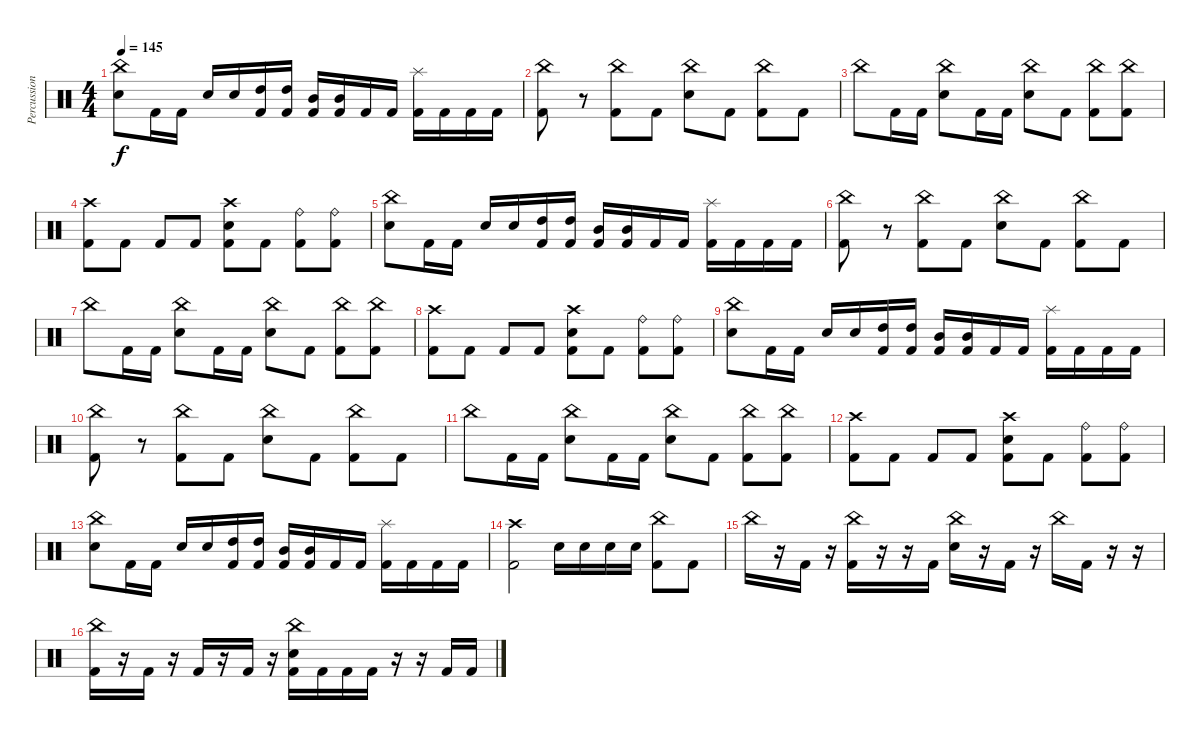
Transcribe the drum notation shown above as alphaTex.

\track ("Percussion" "Percussion") {instrument percussion}
\staff {score}
\articulation defaults
\ts (4 4)
\tempo 145
\clef neutral
\ks c
("China (hit)" "Snare (hit) 2").8{dy f} "Kick (hit) 2".16 "Kick (hit) 2".16 "Snare (hit) 2".16 "Snare (hit) 2".16 ("High Tom (hit)" "Kick (hit) 2").16 ("High Tom (hit)" "Kick (hit) 2").16 ("Mid Tom (hit)" "Kick (hit) 2").16 ("Mid Tom (hit)" "Kick (hit) 2").16 "Kick (hit) 2".16 "Kick (hit) 2".16 ("Splash (hit)" "Kick (hit) 2").16 "Kick (hit) 2".16 "Kick (hit) 2".16 "Kick (hit) 2".16 |
("China (hit)" "Kick (hit) 2").8 r.8 ("China (hit)" "Kick (hit) 2").8 "Kick (hit) 2".8 ("China (hit)" "Snare (hit) 2").8 "Kick (hit) 2".8 ("China (hit)" "Kick (hit) 2").8 "Kick (hit) 2".8 |
"China (hit)".8 "Kick (hit) 2".16 "Kick (hit) 2".16 ("China (hit)" "Snare (hit) 2").8 "Kick (hit) 2".16 "Kick (hit) 2".16 ("China (hit)" "Snare (hit) 2").8 "Kick (hit) 2".8 ("China (hit)" "Kick (hit) 2").8 ("China (hit)" "Kick (hit) 2").8 |
("Crash high (hit)" "Kick (hit) 2").8 "Kick (hit) 2".8 "Kick (hit) 2".8 "Kick (hit) 2".8 ("Crash high (hit)" "Snare (hit) 2" "Kick (hit) 2").8 "Kick (hit) 2".8 ("Ride (bell)" "Kick (hit) 2").8 ("Ride (bell)" "Kick (hit) 2").8 |
("China (hit)" "Snare (hit) 2").8 "Kick (hit) 2".16 "Kick (hit) 2".16 "Snare (hit) 2".16 "Snare (hit) 2".16 ("High Tom (hit)" "Kick (hit) 2").16 ("High Tom (hit)" "Kick (hit) 2").16 ("Mid Tom (hit)" "Kick (hit) 2").16 ("Mid Tom (hit)" "Kick (hit) 2").16 "Kick (hit) 2".16 "Kick (hit) 2".16 ("Splash (hit)" "Kick (hit) 2").16 "Kick (hit) 2".16 "Kick (hit) 2".16 "Kick (hit) 2".16 |
("China (hit)" "Kick (hit) 2").8 r.8 ("China (hit)" "Kick (hit) 2").8 "Kick (hit) 2".8 ("China (hit)" "Snare (hit) 2").8 "Kick (hit) 2".8 ("China (hit)" "Kick (hit) 2").8 "Kick (hit) 2".8 |
"China (hit)".8 "Kick (hit) 2".16 "Kick (hit) 2".16 ("China (hit)" "Snare (hit) 2").8 "Kick (hit) 2".16 "Kick (hit) 2".16 ("China (hit)" "Snare (hit) 2").8 "Kick (hit) 2".8 ("China (hit)" "Kick (hit) 2").8 ("China (hit)" "Kick (hit) 2").8 |
("Crash high (hit)" "Kick (hit) 2").8 "Kick (hit) 2".8 "Kick (hit) 2".8 "Kick (hit) 2".8 ("Crash high (hit)" "Snare (hit) 2" "Kick (hit) 2").8 "Kick (hit) 2".8 ("Ride (bell)" "Kick (hit) 2").8 ("Ride (bell)" "Kick (hit) 2").8 |
("China (hit)" "Snare (hit) 2").8 "Kick (hit) 2".16 "Kick (hit) 2".16 "Snare (hit) 2".16 "Snare (hit) 2".16 ("High Tom (hit)" "Kick (hit) 2").16 ("High Tom (hit)" "Kick (hit) 2").16 ("Mid Tom (hit)" "Kick (hit) 2").16 ("Mid Tom (hit)" "Kick (hit) 2").16 "Kick (hit) 2".16 "Kick (hit) 2".16 ("Splash (hit)" "Kick (hit) 2").16 "Kick (hit) 2".16 "Kick (hit) 2".16 "Kick (hit) 2".16 |
("China (hit)" "Kick (hit) 2").8 r.8 ("China (hit)" "Kick (hit) 2").8 "Kick (hit) 2".8 ("China (hit)" "Snare (hit) 2").8 "Kick (hit) 2".8 ("China (hit)" "Kick (hit) 2").8 "Kick (hit) 2".8 |
"China (hit)".8 "Kick (hit) 2".16 "Kick (hit) 2".16 ("China (hit)" "Snare (hit) 2").8 "Kick (hit) 2".16 "Kick (hit) 2".16 ("China (hit)" "Snare (hit) 2").8 "Kick (hit) 2".8 ("China (hit)" "Kick (hit) 2").8 ("China (hit)" "Kick (hit) 2").8 |
("Crash high (hit)" "Kick (hit) 2").8 "Kick (hit) 2".8 "Kick (hit) 2".8 "Kick (hit) 2".8 ("Crash high (hit)" "Snare (hit) 2" "Kick (hit) 2").8 "Kick (hit) 2".8 ("Ride (bell)" "Kick (hit) 2").8 ("Ride (bell)" "Kick (hit) 2").8 |
("China (hit)" "Snare (hit) 2").8 "Kick (hit) 2".16 "Kick (hit) 2".16 "Snare (hit) 2".16 "Snare (hit) 2".16 ("High Tom (hit)" "Kick (hit) 2").16 ("High Tom (hit)" "Kick (hit) 2").16 ("Mid Tom (hit)" "Kick (hit) 2").16 ("Mid Tom (hit)" "Kick (hit) 2").16 "Kick (hit) 2".16 "Kick (hit) 2".16 ("Splash (hit)" "Kick (hit) 2").16 "Kick (hit) 2".16 "Kick (hit) 2".16 "Kick (hit) 2".16 |
("Crash high (hit)" "Kick (hit) 2").2 "Snare (hit) 2".16 "Snare (hit) 2".16 "Snare (hit) 2".16 "Snare (hit) 2".16 ("China (hit)" "Kick (hit) 2").8 "Kick (hit) 2".8 |
"China (hit)".16 r.16 "Kick (hit) 2".16 r.16 ("China (hit)" "Kick (hit) 2").16 r.16 r.16 "Kick (hit) 2".16 ("China (hit)" "Snare (hit) 2").16 r.16 "Kick (hit) 2".16 r.16 "China (hit)".16 "Kick (hit) 2".16 r.16 r.16 |
("China (hit)" "Kick (hit) 2").16 r.16 "Kick (hit) 2".16 r.16 "Kick (hit) 2".16 r.16 "Kick (hit) 2".16 r.16 ("China (hit)" "Snare (hit) 2" "Kick (hit) 2").16 "Kick (hit) 2".16 "Kick (hit) 2".16 "Kick (hit) 2".16 r.16 r.16 "Kick (hit) 2".16 "Kick (hit) 2".16
